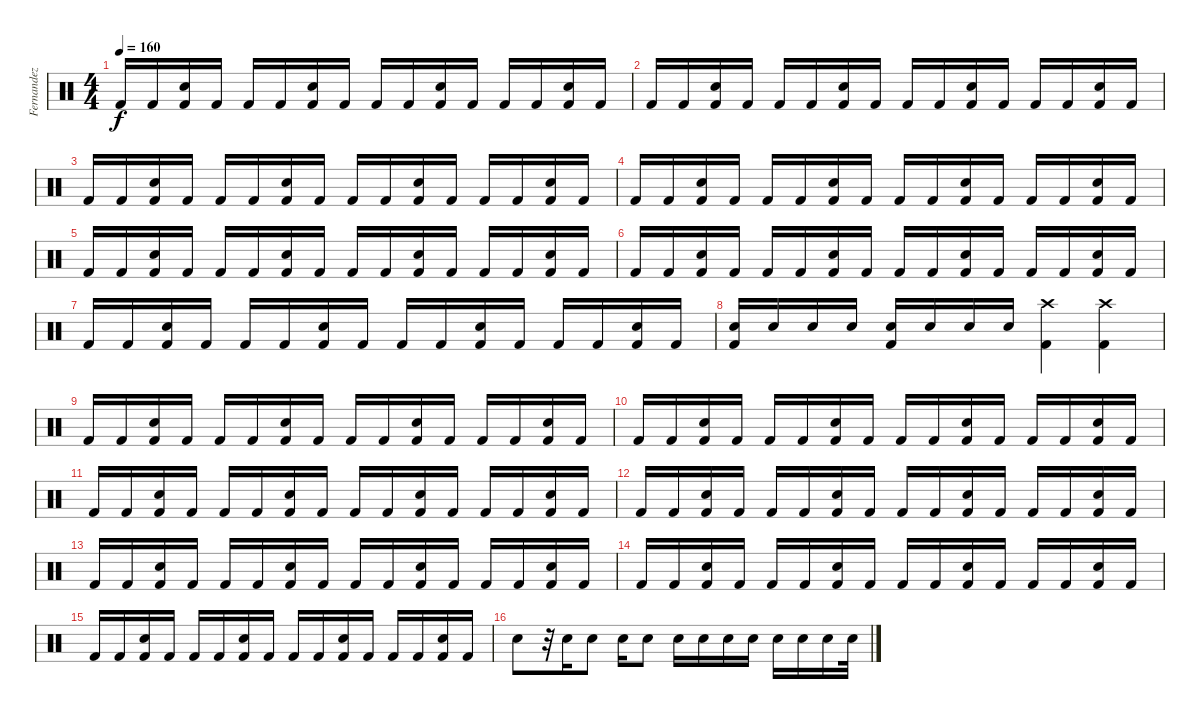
\track ("Fernandez" "Fernandez") {instrument percussion}
\staff {score}
\articulation defaults
\ts (4 4)
\tempo 160
\clef neutral
\ks c "Kick (hit) 2".16{dy f} "Kick (hit) 2".16
("Snare (hit) 2" "Kick (hit) 2").16 "Kick (hit) 2".16 "Kick (hit) 2".16 "Kick (hit) 2".16 ("Snare (hit) 2" "Kick (hit) 2").16 "Kick (hit) 2".16 "Kick (hit) 2".16 "Kick (hit) 2".16 ("Snare (hit) 2" "Kick (hit) 2").16 "Kick (hit) 2".16 "Kick (hit) 2".16 "Kick (hit) 2".16 ("Snare (hit) 2" "Kick (hit) 2").16 "Kick (hit) 2".16 |
"Kick (hit) 2".16 "Kick (hit) 2".16 ("Snare (hit) 2" "Kick (hit) 2").16 "Kick (hit) 2".16 "Kick (hit) 2".16 "Kick (hit) 2".16 ("Snare (hit) 2" "Kick (hit) 2").16 "Kick (hit) 2".16 "Kick (hit) 2".16 "Kick (hit) 2".16 ("Snare (hit) 2" "Kick (hit) 2").16 "Kick (hit) 2".16 "Kick (hit) 2".16 "Kick (hit) 2".16 ("Snare (hit) 2" "Kick (hit) 2").16 "Kick (hit) 2".16 |
"Kick (hit) 2".16 "Kick (hit) 2".16 ("Snare (hit) 2" "Kick (hit) 2").16 "Kick (hit) 2".16 "Kick (hit) 2".16 "Kick (hit) 2".16 ("Snare (hit) 2" "Kick (hit) 2").16 "Kick (hit) 2".16 "Kick (hit) 2".16 "Kick (hit) 2".16 ("Snare (hit) 2" "Kick (hit) 2").16 "Kick (hit) 2".16 "Kick (hit) 2".16 "Kick (hit) 2".16 ("Snare (hit) 2" "Kick (hit) 2").16 "Kick (hit) 2".16 |
"Kick (hit) 2".16 "Kick (hit) 2".16 ("Snare (hit) 2" "Kick (hit) 2").16 "Kick (hit) 2".16 "Kick (hit) 2".16 "Kick (hit) 2".16 ("Snare (hit) 2" "Kick (hit) 2").16 "Kick (hit) 2".16 "Kick (hit) 2".16 "Kick (hit) 2".16 ("Snare (hit) 2" "Kick (hit) 2").16 "Kick (hit) 2".16 "Kick (hit) 2".16 "Kick (hit) 2".16 ("Snare (hit) 2" "Kick (hit) 2").16 "Kick (hit) 2".16 |
"Kick (hit) 2".16 "Kick (hit) 2".16 ("Snare (hit) 2" "Kick (hit) 2").16 "Kick (hit) 2".16 "Kick (hit) 2".16 "Kick (hit) 2".16 ("Snare (hit) 2" "Kick (hit) 2").16 "Kick (hit) 2".16 "Kick (hit) 2".16 "Kick (hit) 2".16 ("Snare (hit) 2" "Kick (hit) 2").16 "Kick (hit) 2".16 "Kick (hit) 2".16 "Kick (hit) 2".16 ("Snare (hit) 2" "Kick (hit) 2").16 "Kick (hit) 2".16 |
"Kick (hit) 2".16 "Kick (hit) 2".16 ("Snare (hit) 2" "Kick (hit) 2").16 "Kick (hit) 2".16 "Kick (hit) 2".16 "Kick (hit) 2".16 ("Snare (hit) 2" "Kick (hit) 2").16 "Kick (hit) 2".16 "Kick (hit) 2".16 "Kick (hit) 2".16 ("Snare (hit) 2" "Kick (hit) 2").16 "Kick (hit) 2".16 "Kick (hit) 2".16 "Kick (hit) 2".16 ("Snare (hit) 2" "Kick (hit) 2").16 "Kick (hit) 2".16 |
"Kick (hit) 2".16 "Kick (hit) 2".16 ("Snare (hit) 2" "Kick (hit) 2").16 "Kick (hit) 2".16 "Kick (hit) 2".16 "Kick (hit) 2".16 ("Snare (hit) 2" "Kick (hit) 2").16 "Kick (hit) 2".16 "Kick (hit) 2".16 "Kick (hit) 2".16 ("Snare (hit) 2" "Kick (hit) 2").16 "Kick (hit) 2".16 "Kick (hit) 2".16 "Kick (hit) 2".16 ("Snare (hit) 2" "Kick (hit) 2").16 "Kick (hit) 2".16 |
("Kick (hit) 2" "Snare (hit) 2").16 "Snare (hit) 2".16 "Snare (hit) 2".16 "Snare (hit) 2".16 ("Kick (hit) 2" "Snare (hit) 2").16 "Snare (hit) 2".16 "Snare (hit) 2".16 "Snare (hit) 2".16 ("Kick (hit) 2" "Crash high (hit)").4 ("Crash high (hit)" "Kick (hit) 2").4 |
"Kick (hit) 2".16 "Kick (hit) 2".16 ("Snare (hit) 2" "Kick (hit) 2").16 "Kick (hit) 2".16 "Kick (hit) 2".16 "Kick (hit) 2".16 ("Snare (hit) 2" "Kick (hit) 2").16 "Kick (hit) 2".16 "Kick (hit) 2".16 "Kick (hit) 2".16 ("Snare (hit) 2" "Kick (hit) 2").16 "Kick (hit) 2".16 "Kick (hit) 2".16 "Kick (hit) 2".16 ("Snare (hit) 2" "Kick (hit) 2").16 "Kick (hit) 2".16 |
"Kick (hit) 2".16 "Kick (hit) 2".16 ("Snare (hit) 2" "Kick (hit) 2").16 "Kick (hit) 2".16 "Kick (hit) 2".16 "Kick (hit) 2".16 ("Snare (hit) 2" "Kick (hit) 2").16 "Kick (hit) 2".16 "Kick (hit) 2".16 "Kick (hit) 2".16 ("Snare (hit) 2" "Kick (hit) 2").16 "Kick (hit) 2".16 "Kick (hit) 2".16 "Kick (hit) 2".16 ("Snare (hit) 2" "Kick (hit) 2").16 "Kick (hit) 2".16 |
"Kick (hit) 2".16 "Kick (hit) 2".16 ("Snare (hit) 2" "Kick (hit) 2").16 "Kick (hit) 2".16 "Kick (hit) 2".16 "Kick (hit) 2".16 ("Snare (hit) 2" "Kick (hit) 2").16 "Kick (hit) 2".16 "Kick (hit) 2".16 "Kick (hit) 2".16 ("Snare (hit) 2" "Kick (hit) 2").16 "Kick (hit) 2".16 "Kick (hit) 2".16 "Kick (hit) 2".16 ("Snare (hit) 2" "Kick (hit) 2").16 "Kick (hit) 2".16 |
"Kick (hit) 2".16 "Kick (hit) 2".16 ("Snare (hit) 2" "Kick (hit) 2").16 "Kick (hit) 2".16 "Kick (hit) 2".16 "Kick (hit) 2".16 ("Snare (hit) 2" "Kick (hit) 2").16 "Kick (hit) 2".16 "Kick (hit) 2".16 "Kick (hit) 2".16 ("Snare (hit) 2" "Kick (hit) 2").16 "Kick (hit) 2".16 "Kick (hit) 2".16 "Kick (hit) 2".16 ("Snare (hit) 2" "Kick (hit) 2").16 "Kick (hit) 2".16 |
"Kick (hit) 2".16 "Kick (hit) 2".16 ("Snare (hit) 2" "Kick (hit) 2").16 "Kick (hit) 2".16 "Kick (hit) 2".16 "Kick (hit) 2".16 ("Snare (hit) 2" "Kick (hit) 2").16 "Kick (hit) 2".16 "Kick (hit) 2".16 "Kick (hit) 2".16 ("Snare (hit) 2" "Kick (hit) 2").16 "Kick (hit) 2".16 "Kick (hit) 2".16 "Kick (hit) 2".16 ("Snare (hit) 2" "Kick (hit) 2").16 "Kick (hit) 2".16 |
"Kick (hit) 2".16 "Kick (hit) 2".16 ("Snare (hit) 2" "Kick (hit) 2").16 "Kick (hit) 2".16 "Kick (hit) 2".16 "Kick (hit) 2".16 ("Snare (hit) 2" "Kick (hit) 2").16 "Kick (hit) 2".16 "Kick (hit) 2".16 "Kick (hit) 2".16 ("Snare (hit) 2" "Kick (hit) 2").16 "Kick (hit) 2".16 "Kick (hit) 2".16 "Kick (hit) 2".16 ("Snare (hit) 2" "Kick (hit) 2").16 "Kick (hit) 2".16 |
"Kick (hit) 2".16 "Kick (hit) 2".16 ("Snare (hit) 2" "Kick (hit) 2").16 "Kick (hit) 2".16 "Kick (hit) 2".16 "Kick (hit) 2".16 ("Snare (hit) 2" "Kick (hit) 2").16 "Kick (hit) 2".16 "Kick (hit) 2".16 "Kick (hit) 2".16 ("Snare (hit) 2" "Kick (hit) 2").16 "Kick (hit) 2".16 "Kick (hit) 2".16 "Kick (hit) 2".16 ("Snare (hit) 2" "Kick (hit) 2").16 "Kick (hit) 2".16 |
"Snare (hit) 2".8 r.32 "Snare (hit) 2".16 "Snare (hit) 2".8 "Snare (hit) 2".16 "Snare (hit) 2".8 "Snare (hit) 2".16 "Snare (hit) 2".16 "Snare (hit) 2".16 "Snare (hit) 2".16 "Snare (hit) 2".16 "Snare (hit) 2".16 "Snare (hit) 2".16 "Snare (hit) 2".32
